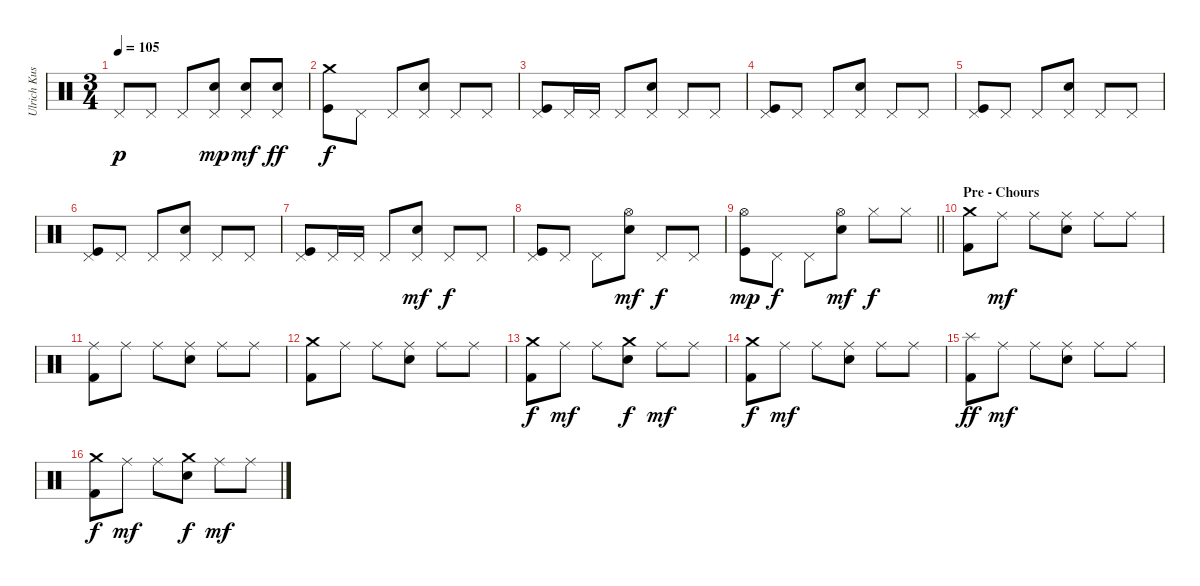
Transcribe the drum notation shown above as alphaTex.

\track ("Ulrich Kusch" "Ulrich Kus") {instrument percussion}
\staff {score}
\articulation defaults
\ts (3 4)
\tempo 105
\clef neutral
\ks c "Pedal Hi-Hat (hit)".8{dy p} "Pedal Hi-Hat (hit)".8 "Pedal Hi-Hat (hit)".8
("Pedal Hi-Hat (hit)" "Electric Snare (hit)").8{dy mp} ("Pedal Hi-Hat (hit)" "Electric Snare (hit)").8{dy mf} ("Pedal Hi-Hat (hit)" "Electric Snare (hit)").8{dy ff} |
("Crash medium (hit)" "Kick (hit)").8{dy f} "Pedal Hi-Hat (hit)".8 "Pedal Hi-Hat (hit)".8 ("Pedal Hi-Hat (hit)" "Electric Snare (hit)").8 "Pedal Hi-Hat (hit)".8 "Pedal Hi-Hat (hit)".8 |
("Pedal Hi-Hat (hit)" "Kick (hit)").8 "Pedal Hi-Hat (hit)".16 "Pedal Hi-Hat (hit)".16 "Pedal Hi-Hat (hit)".8 ("Pedal Hi-Hat (hit)" "Electric Snare (hit)").8 "Pedal Hi-Hat (hit)".8 "Pedal Hi-Hat (hit)".8 |
("Pedal Hi-Hat (hit)" "Kick (hit)").8 "Pedal Hi-Hat (hit)".8 "Pedal Hi-Hat (hit)".8 ("Pedal Hi-Hat (hit)" "Electric Snare (hit)").8 "Pedal Hi-Hat (hit)".8 "Pedal Hi-Hat (hit)".8 |
("Pedal Hi-Hat (hit)" "Kick (hit)").8 "Pedal Hi-Hat (hit)".8 "Pedal Hi-Hat (hit)".8 ("Pedal Hi-Hat (hit)" "Electric Snare (hit)").8 "Pedal Hi-Hat (hit)".8 "Pedal Hi-Hat (hit)".8 |
("Pedal Hi-Hat (hit)" "Kick (hit)").8 "Pedal Hi-Hat (hit)".8 "Pedal Hi-Hat (hit)".8 ("Pedal Hi-Hat (hit)" "Electric Snare (hit)").8 "Pedal Hi-Hat (hit)".8 "Pedal Hi-Hat (hit)".8 |
("Pedal Hi-Hat (hit)" "Kick (hit)").8 "Pedal Hi-Hat (hit)".16 "Pedal Hi-Hat (hit)".16 "Pedal Hi-Hat (hit)".8 ("Pedal Hi-Hat (hit)" "Electric Snare (hit)").8{dy mf} "Pedal Hi-Hat (hit)".8{dy f} "Pedal Hi-Hat (hit)".8 |
("Pedal Hi-Hat (hit)" "Kick (hit)").8 "Pedal Hi-Hat (hit)".8 "Pedal Hi-Hat (hit)".8 ("Hi-Hat (open)" "Electric Snare (hit)").8{dy mf} "Pedal Hi-Hat (hit)".8{dy f} "Pedal Hi-Hat (hit)".8 |
\barLineRight lightlight
("Hi-Hat (open)" "Kick (hit)").8{dy mp} "Pedal Hi-Hat (hit)".8{dy f} "Pedal Hi-Hat (hit)".8 ("Hi-Hat (open)" "Electric Snare (hit)").8{dy mf} "Hi-Hat (closed)".8{dy f} "Hi-Hat (closed)".8 |
\section ("" "Pre - Chours")
("Crash medium (hit)" "Kick (hit) 2").8 "Ride (middle)".8{dy mf} "Ride (middle)".8 ("Ride (middle)" "Electric Snare (hit)").8 "Ride (middle)".8 "Ride (middle)".8 |
("Ride (middle)" "Kick (hit) 2").8 "Ride (middle)".8 "Ride (middle)".8 ("Ride (middle)" "Electric Snare (hit)").8 "Ride (middle)".8 "Ride (middle)".8 |
("Crash medium (hit)" "Kick (hit) 2").8 "Ride (middle)".8 "Ride (middle)".8 ("Ride (middle)" "Electric Snare (hit)").8 "Ride (middle)".8 "Ride (middle)".8 |
("Crash medium (hit)" "Kick (hit) 2").8{dy f} "Ride (middle)".8{dy mf} "Ride (middle)".8 ("Crash medium (hit)" "Electric Snare (hit)").8{dy f} "Ride (middle)".8{dy mf} "Ride (middle)".8 |
("Crash medium (hit)" "Kick (hit) 2").8{dy f} "Ride (middle)".8{dy mf} "Ride (middle)".8 ("Ride (middle)" "Electric Snare (hit)").8 "Ride (middle)".8 "Ride (middle)".8 |
("Splash (hit)" "Kick (hit) 2").8{dy ff} "Ride (middle)".8{dy mf} "Ride (middle)".8 ("Ride (middle)" "Electric Snare (hit)").8 "Ride (middle)".8 "Ride (middle)".8 |
("Crash medium (hit)" "Kick (hit) 2").8{dy f} "Ride (middle)".8{dy mf} "Ride (middle)".8 ("Crash medium (hit)" "Electric Snare (hit)").8{dy f} "Ride (middle)".8{dy mf} "Ride (middle)".8
